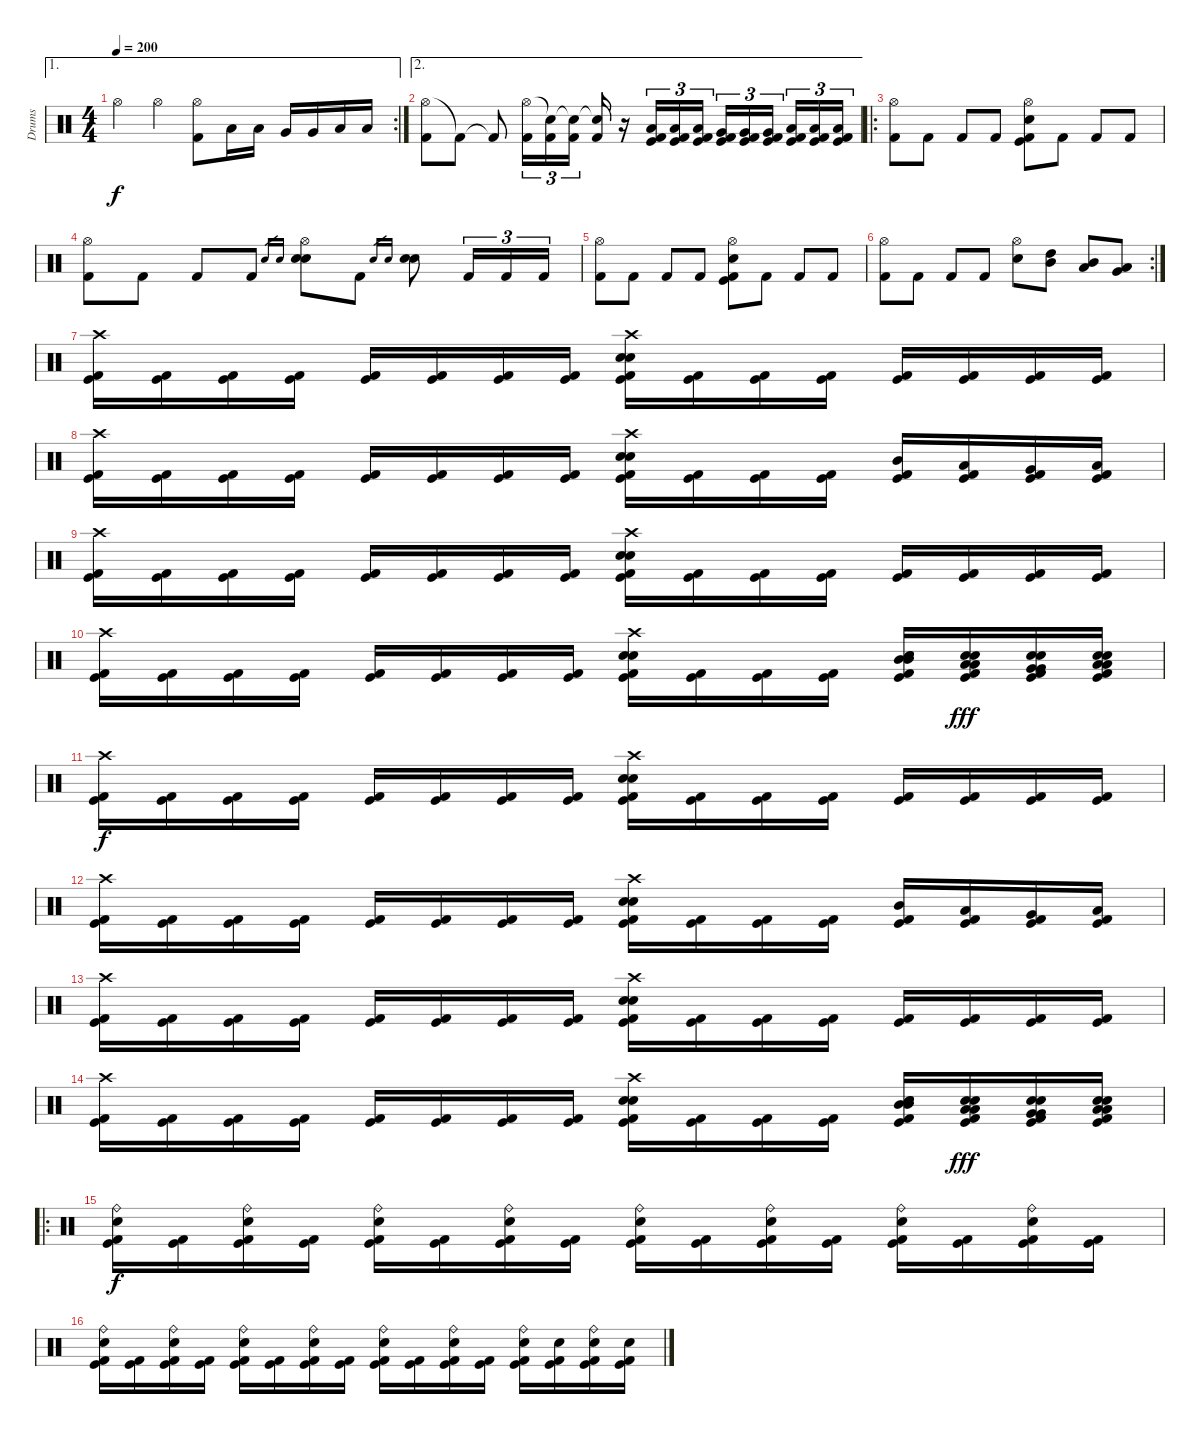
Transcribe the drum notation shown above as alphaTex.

\track ("Drums" "Drums") {instrument percussion}
\staff {score}
\articulation defaults
\ae 1
\rc 2
\ts (4 4)
\tempo 200
\clef neutral
\ks c "Hi-Hat (open)".4{dy f} "Hi-Hat (open)".4
("Kick (hit) 2" "Hi-Hat (open)").8 "Low Tom (hit)".16 "Low Tom (hit)".16 "Very Low Tom (hit)".16 "Very Low Tom (hit)".16 "Low Floor Tom (hit)".16 "Low Floor Tom (hit)".16 |
\ae 2
("Hi-Hat (open)" "Kick (hit) 2").8 "Kick (hit) 2"{t}.8 "Kick (hit) 2"{t}.8 ("Hi-Hat (open)" "Kick (hit) 2").16{tu (3 2)} ("Snare (hit)"{t} "Kick (hit) 2").16{tu (3 2)} ("Snare (hit)"{t} "Kick (hit) 2").16{tu (3 2)} ("Snare (hit)"{t} "Kick (hit) 2").16 r.16 ("Low Tom (hit)" "Kick (hit)" "Kick (hit) 2").16{tu (3 2)} ("Low Tom (hit)" "Kick (hit)" "Kick (hit) 2").16{tu (3 2)} ("Low Tom (hit)" "Kick (hit)" "Kick (hit) 2").16{tu (3 2)} ("Very Low Tom (hit)" "Kick (hit)" "Kick (hit) 2").16{tu (3 2)} ("Very Low Tom (hit)" "Kick (hit)" "Kick (hit) 2").16{tu (3 2)} ("Very Low Tom (hit)" "Kick (hit)" "Kick (hit) 2").16{tu (3 2)} ("Low Floor Tom (hit)" "Kick (hit)" "Kick (hit) 2").16{tu (3 2)} ("Low Floor Tom (hit)" "Kick (hit)" "Kick (hit) 2").16{tu (3 2)} ("Low Floor Tom (hit)" "Kick (hit)" "Kick (hit) 2").16{tu (3 2)} |
\ro
("Hi-Hat (open)" "Kick (hit) 2").8 "Kick (hit) 2".8 "Kick (hit) 2".8 "Kick (hit) 2".8 ("Hi-Hat (open)" "Kick (hit) 2" "Kick (hit)" "Electric Snare (hit)").8 "Kick (hit) 2".8 "Kick (hit) 2".8 "Kick (hit) 2".8 |
("Hi-Hat (open)" "Kick (hit) 2").8 "Kick (hit) 2".8 "Kick (hit) 2".8 "Kick (hit) 2".8 "Electric Snare (hit)".16{gr} "Electric Snare (hit)".16{gr} ("Hi-Hat (open)" "Electric Snare (hit)" "Electric Snare (hit)").8 "Kick (hit) 2".8 "Electric Snare (hit)".16{gr} "Electric Snare (hit)".16{gr} ("Electric Snare (hit)" "Electric Snare (hit)").8 "Kick (hit) 2".16{tu (3 2)} "Kick (hit) 2".16{tu (3 2)} "Kick (hit) 2".16{tu (3 2)} |
("Hi-Hat (open)" "Kick (hit) 2").8 "Kick (hit) 2".8 "Kick (hit) 2".8 "Kick (hit) 2".8 ("Hi-Hat (open)" "Kick (hit)" "Kick (hit) 2" "Electric Snare (hit)").8 "Kick (hit) 2".8 "Kick (hit) 2".8 "Kick (hit) 2".8 |
\rc 2
("Hi-Hat (open)" "Kick (hit) 2").8 "Kick (hit) 2".8 "Kick (hit) 2".8 "Kick (hit) 2".8 ("Hi-Hat (open)" "Electric Snare (hit)").8 ("Mid Tom (hit)" "High Tom (hit)").8 ("Low Tom (hit)" "Mid Tom (hit)").8 ("Very Low Tom (hit)" "Low Tom (hit)").8 |
("Crash high (hit)" "Kick (hit)" "Kick (hit) 2").16 ("Kick (hit)" "Kick (hit) 2").16 ("Kick (hit)" "Kick (hit) 2").16 ("Kick (hit)" "Kick (hit) 2").16 ("Kick (hit)" "Kick (hit) 2").16 ("Kick (hit)" "Kick (hit) 2").16 ("Kick (hit)" "Kick (hit) 2").16 ("Kick (hit)" "Kick (hit) 2").16 ("Crash high (hit)" "Electric Snare (hit)" "Electric Snare (hit)" "Kick (hit)" "Kick (hit) 2").16 ("Kick (hit)" "Kick (hit) 2").16 ("Kick (hit)" "Kick (hit) 2").16 ("Kick (hit)" "Kick (hit) 2").16 ("Kick (hit)" "Kick (hit) 2").16 ("Kick (hit)" "Kick (hit) 2").16 ("Kick (hit)" "Kick (hit) 2").16 ("Kick (hit)" "Kick (hit) 2").16 |
("Crash high (hit)" "Kick (hit)" "Kick (hit) 2").16 ("Kick (hit)" "Kick (hit) 2").16 ("Kick (hit)" "Kick (hit) 2").16 ("Kick (hit)" "Kick (hit) 2").16 ("Kick (hit)" "Kick (hit) 2").16 ("Kick (hit)" "Kick (hit) 2").16 ("Kick (hit)" "Kick (hit) 2").16 ("Kick (hit)" "Kick (hit) 2").16 ("Crash high (hit)" "Electric Snare (hit)" "Electric Snare (hit)" "Kick (hit)" "Kick (hit) 2").16 ("Kick (hit)" "Kick (hit) 2").16 ("Kick (hit)" "Kick (hit) 2").16 ("Kick (hit)" "Kick (hit) 2").16 ("Mid Tom (hit)" "Kick (hit)" "Kick (hit) 2").16 ("Low Tom (hit)" "Kick (hit)" "Kick (hit) 2").16 ("Very Low Tom (hit)" "Kick (hit)" "Kick (hit) 2").16 ("Low Floor Tom (hit)" "Kick (hit)" "Kick (hit) 2").16 |
("Crash high (hit)" "Kick (hit)" "Kick (hit) 2").16 ("Kick (hit)" "Kick (hit) 2").16 ("Kick (hit)" "Kick (hit) 2").16 ("Kick (hit)" "Kick (hit) 2").16 ("Kick (hit)" "Kick (hit) 2").16 ("Kick (hit)" "Kick (hit) 2").16 ("Kick (hit)" "Kick (hit) 2").16 ("Kick (hit)" "Kick (hit) 2").16 ("Crash high (hit)" "Electric Snare (hit)" "Electric Snare (hit)" "Kick (hit)" "Kick (hit) 2").16 ("Kick (hit)" "Kick (hit) 2").16 ("Kick (hit)" "Kick (hit) 2").16 ("Kick (hit)" "Kick (hit) 2").16 ("Kick (hit)" "Kick (hit) 2").16 ("Kick (hit)" "Kick (hit) 2").16 ("Kick (hit)" "Kick (hit) 2").16 ("Kick (hit)" "Kick (hit) 2").16 |
("Crash high (hit)" "Kick (hit)" "Kick (hit) 2").16 ("Kick (hit)" "Kick (hit) 2").16 ("Kick (hit)" "Kick (hit) 2").16 ("Kick (hit)" "Kick (hit) 2").16 ("Kick (hit)" "Kick (hit) 2").16 ("Kick (hit)" "Kick (hit) 2").16 ("Kick (hit)" "Kick (hit) 2").16 ("Kick (hit)" "Kick (hit) 2").16 ("Crash high (hit)" "Electric Snare (hit)" "Electric Snare (hit)" "Kick (hit)" "Kick (hit) 2").16 ("Kick (hit)" "Kick (hit) 2").16 ("Kick (hit)" "Kick (hit) 2").16 ("Kick (hit)" "Kick (hit) 2").16 ("Mid Tom (hit)" "Mid Tom (hit)" "Electric Snare (hit)" "Electric Snare (hit)" "Kick (hit)" "Kick (hit) 2").16 ("Low Tom (hit)" "Low Tom (hit)" "Electric Snare (hit)" "Electric Snare (hit)" "Kick (hit)" "Kick (hit) 2").16{dy fff} ("Very Low Tom (hit)" "Very Low Tom (hit)" "Electric Snare (hit)" "Electric Snare (hit)" "Kick (hit)" "Kick (hit) 2").16 ("Low Floor Tom (hit)" "Low Floor Tom (hit)" "Electric Snare (hit)" "Electric Snare (hit)" "Kick (hit)" "Kick (hit) 2").16 |
("Crash high (hit)" "Kick (hit)" "Kick (hit) 2").16{dy f} ("Kick (hit)" "Kick (hit) 2").16 ("Kick (hit)" "Kick (hit) 2").16 ("Kick (hit)" "Kick (hit) 2").16 ("Kick (hit)" "Kick (hit) 2").16 ("Kick (hit)" "Kick (hit) 2").16 ("Kick (hit)" "Kick (hit) 2").16 ("Kick (hit)" "Kick (hit) 2").16 ("Crash high (hit)" "Electric Snare (hit)" "Electric Snare (hit)" "Kick (hit)" "Kick (hit) 2").16 ("Kick (hit)" "Kick (hit) 2").16 ("Kick (hit)" "Kick (hit) 2").16 ("Kick (hit)" "Kick (hit) 2").16 ("Kick (hit)" "Kick (hit) 2").16 ("Kick (hit)" "Kick (hit) 2").16 ("Kick (hit)" "Kick (hit) 2").16 ("Kick (hit)" "Kick (hit) 2").16 |
("Crash high (hit)" "Kick (hit)" "Kick (hit) 2").16 ("Kick (hit)" "Kick (hit) 2").16 ("Kick (hit)" "Kick (hit) 2").16 ("Kick (hit)" "Kick (hit) 2").16 ("Kick (hit)" "Kick (hit) 2").16 ("Kick (hit)" "Kick (hit) 2").16 ("Kick (hit)" "Kick (hit) 2").16 ("Kick (hit)" "Kick (hit) 2").16 ("Crash high (hit)" "Electric Snare (hit)" "Electric Snare (hit)" "Kick (hit)" "Kick (hit) 2").16 ("Kick (hit)" "Kick (hit) 2").16 ("Kick (hit)" "Kick (hit) 2").16 ("Kick (hit)" "Kick (hit) 2").16 ("Mid Tom (hit)" "Kick (hit)" "Kick (hit) 2").16 ("Low Tom (hit)" "Kick (hit)" "Kick (hit) 2").16 ("Very Low Tom (hit)" "Kick (hit)" "Kick (hit) 2").16 ("Low Floor Tom (hit)" "Kick (hit)" "Kick (hit) 2").16 |
("Crash high (hit)" "Kick (hit)" "Kick (hit) 2").16 ("Kick (hit)" "Kick (hit) 2").16 ("Kick (hit)" "Kick (hit) 2").16 ("Kick (hit)" "Kick (hit) 2").16 ("Kick (hit)" "Kick (hit) 2").16 ("Kick (hit)" "Kick (hit) 2").16 ("Kick (hit)" "Kick (hit) 2").16 ("Kick (hit)" "Kick (hit) 2").16 ("Crash high (hit)" "Electric Snare (hit)" "Electric Snare (hit)" "Kick (hit)" "Kick (hit) 2").16 ("Kick (hit)" "Kick (hit) 2").16 ("Kick (hit)" "Kick (hit) 2").16 ("Kick (hit)" "Kick (hit) 2").16 ("Kick (hit)" "Kick (hit) 2").16 ("Kick (hit)" "Kick (hit) 2").16 ("Kick (hit)" "Kick (hit) 2").16 ("Kick (hit)" "Kick (hit) 2").16 |
("Crash high (hit)" "Kick (hit)" "Kick (hit) 2").16 ("Kick (hit)" "Kick (hit) 2").16 ("Kick (hit)" "Kick (hit) 2").16 ("Kick (hit)" "Kick (hit) 2").16 ("Kick (hit)" "Kick (hit) 2").16 ("Kick (hit)" "Kick (hit) 2").16 ("Kick (hit)" "Kick (hit) 2").16 ("Kick (hit)" "Kick (hit) 2").16 ("Crash high (hit)" "Electric Snare (hit)" "Electric Snare (hit)" "Kick (hit)" "Kick (hit) 2").16 ("Kick (hit)" "Kick (hit) 2").16 ("Kick (hit)" "Kick (hit) 2").16 ("Kick (hit)" "Kick (hit) 2").16 ("Mid Tom (hit)" "Mid Tom (hit)" "Electric Snare (hit)" "Electric Snare (hit)" "Kick (hit)" "Kick (hit) 2").16 ("Low Tom (hit)" "Low Tom (hit)" "Electric Snare (hit)" "Electric Snare (hit)" "Kick (hit)" "Kick (hit) 2").16{dy fff} ("Very Low Tom (hit)" "Very Low Tom (hit)" "Electric Snare (hit)" "Electric Snare (hit)" "Kick (hit)" "Kick (hit) 2").16 ("Low Floor Tom (hit)" "Low Floor Tom (hit)" "Electric Snare (hit)" "Electric Snare (hit)" "Kick (hit)" "Kick (hit) 2").16 |
\ro
("Ride (bell)" "Electric Snare (hit)" "Kick (hit)" "Kick (hit) 2").16{dy f} ("Kick (hit)" "Kick (hit) 2").16 ("Ride (bell)" "Electric Snare (hit)" "Kick (hit)" "Kick (hit) 2").16 ("Kick (hit)" "Kick (hit) 2").16 ("Ride (bell)" "Electric Snare (hit)" "Kick (hit)" "Kick (hit) 2").16 ("Kick (hit)" "Kick (hit) 2").16 ("Ride (bell)" "Electric Snare (hit)" "Kick (hit)" "Kick (hit) 2").16 ("Kick (hit)" "Kick (hit) 2").16 ("Ride (bell)" "Electric Snare (hit)" "Kick (hit)" "Kick (hit) 2").16 ("Kick (hit)" "Kick (hit) 2").16 ("Ride (bell)" "Electric Snare (hit)" "Kick (hit)" "Kick (hit) 2").16 ("Kick (hit)" "Kick (hit) 2").16 ("Ride (bell)" "Electric Snare (hit)" "Kick (hit)" "Kick (hit) 2").16 ("Kick (hit)" "Kick (hit) 2").16 ("Ride (bell)" "Electric Snare (hit)" "Kick (hit)" "Kick (hit) 2").16 ("Kick (hit)" "Kick (hit) 2").16 |
("Ride (bell)" "Electric Snare (hit)" "Kick (hit)" "Kick (hit) 2").16 ("Kick (hit)" "Kick (hit) 2").16 ("Ride (bell)" "Electric Snare (hit)" "Kick (hit)" "Kick (hit) 2").16 ("Kick (hit)" "Kick (hit) 2").16 ("Ride (bell)" "Electric Snare (hit)" "Kick (hit)" "Kick (hit) 2").16 ("Kick (hit)" "Kick (hit) 2").16 ("Ride (bell)" "Electric Snare (hit)" "Kick (hit)" "Kick (hit) 2").16 ("Kick (hit)" "Kick (hit) 2").16 ("Ride (bell)" "Electric Snare (hit)" "Kick (hit)" "Kick (hit) 2").16 ("Kick (hit)" "Kick (hit) 2").16 ("Ride (bell)" "Electric Snare (hit)" "Kick (hit)" "Kick (hit) 2").16 ("Kick (hit)" "Kick (hit) 2").16 ("Ride (bell)" "Electric Snare (hit)" "Kick (hit)" "Kick (hit) 2").16 ("Electric Snare (hit)" "Kick (hit)" "Kick (hit) 2").16 ("Ride (bell)" "Electric Snare (hit)" "Kick (hit)" "Kick (hit) 2").16 ("Electric Snare (hit)" "Kick (hit)" "Kick (hit) 2").16
